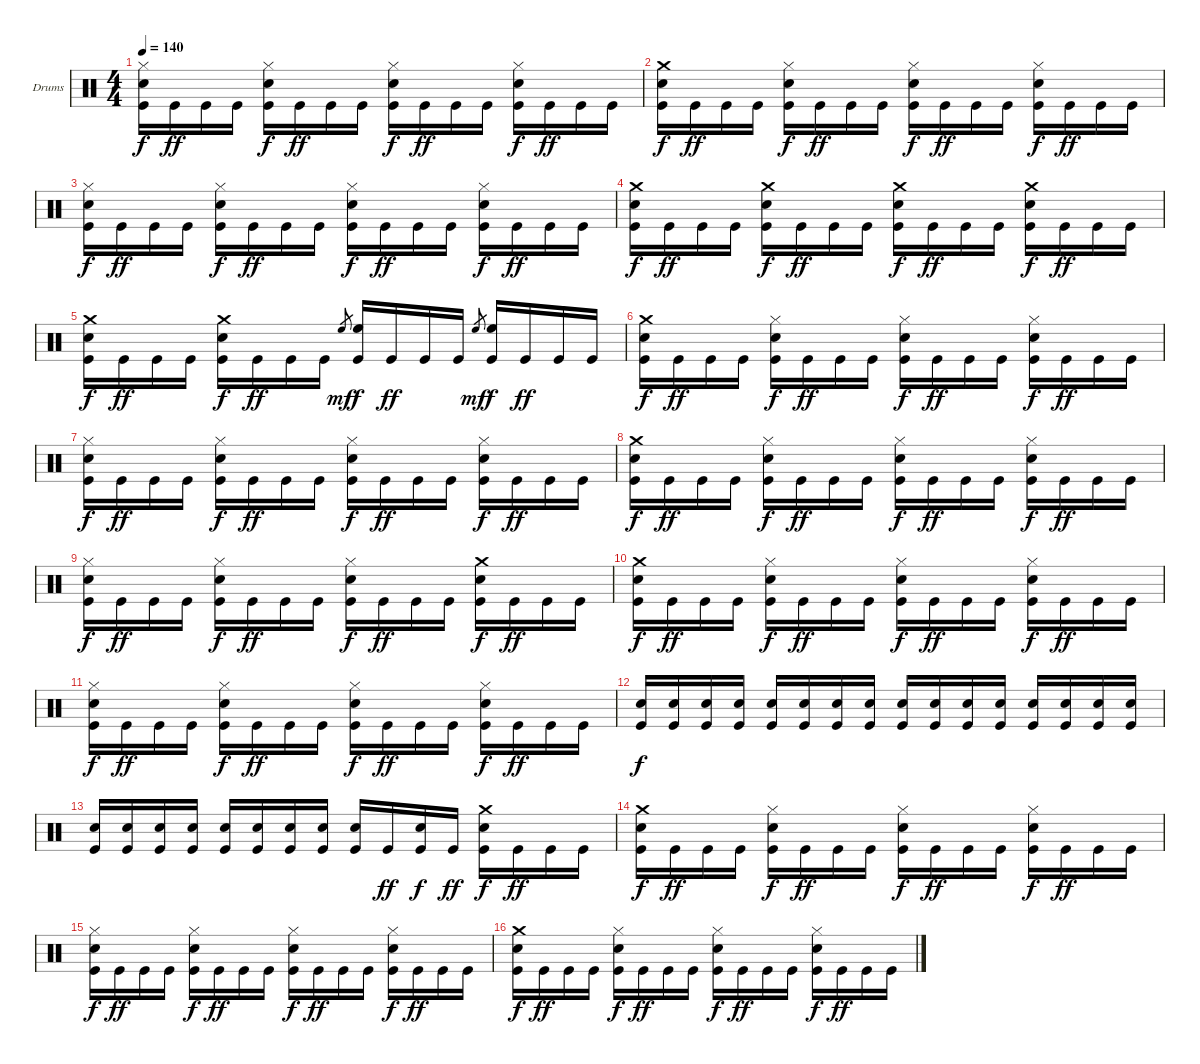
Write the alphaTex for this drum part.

\defaultSystemsLayout 4
\bracketExtendMode groupsimilarinstruments
\firstSystemTrackNameOrientation horizontal
\otherSystemsTrackNameOrientation horizontal
\track ("Drumkit" "Drums") {instrument percussion}
\staff {score}
\articulation defaults
\ts (4 4)
\tempo 140
\clef neutral
\ks c
("Hi-Hat (closed)" "Snare (hit) 2" "Kick (hit)").16{dy f} "Kick (hit)".16{dy ff} "Kick (hit)".16 "Kick (hit)".16 ("Hi-Hat (closed)" "Snare (hit) 2" "Kick (hit)").16{dy f} "Kick (hit)".16{dy ff} "Kick (hit)".16 "Kick (hit)".16 ("Hi-Hat (closed)" "Snare (hit) 2" "Kick (hit)").16{dy f} "Kick (hit)".16{dy ff} "Kick (hit)".16 "Kick (hit)".16 ("Hi-Hat (closed)" "Snare (hit) 2" "Kick (hit)").16{dy f} "Kick (hit)".16{dy ff} "Kick (hit)".16 "Kick (hit)".16 |
("Crash medium (hit)" "Snare (hit) 2" "Kick (hit)").16{dy f} "Kick (hit)".16{dy ff} "Kick (hit)".16 "Kick (hit)".16 ("Hi-Hat (closed)" "Snare (hit) 2" "Kick (hit)").16{dy f} "Kick (hit)".16{dy ff} "Kick (hit)".16 "Kick (hit)".16 ("Hi-Hat (closed)" "Snare (hit) 2" "Kick (hit)").16{dy f} "Kick (hit)".16{dy ff} "Kick (hit)".16 "Kick (hit)".16 ("Hi-Hat (closed)" "Snare (hit) 2" "Kick (hit)").16{dy f} "Kick (hit)".16{dy ff} "Kick (hit)".16 "Kick (hit)".16 |
("Hi-Hat (closed)" "Snare (hit) 2" "Kick (hit)").16{dy f} "Kick (hit)".16{dy ff} "Kick (hit)".16 "Kick (hit)".16 ("Hi-Hat (closed)" "Snare (hit) 2" "Kick (hit)").16{dy f} "Kick (hit)".16{dy ff} "Kick (hit)".16 "Kick (hit)".16 ("Hi-Hat (closed)" "Snare (hit) 2" "Kick (hit)").16{dy f} "Kick (hit)".16{dy ff} "Kick (hit)".16 "Kick (hit)".16 ("Hi-Hat (closed)" "Snare (hit) 2" "Kick (hit)").16{dy f} "Kick (hit)".16{dy ff} "Kick (hit)".16 "Kick (hit)".16 |
("Crash medium (hit)" "Snare (hit) 2" "Kick (hit)").16{dy f} "Kick (hit)".16{dy ff} "Kick (hit)".16 "Kick (hit)".16 ("Crash medium (hit)" "Snare (hit) 2" "Kick (hit)").16{dy f} "Kick (hit)".16{dy ff} "Kick (hit)".16 "Kick (hit)".16 ("Crash medium (hit)" "Snare (hit) 2" "Kick (hit)").16{dy f} "Kick (hit)".16{dy ff} "Kick (hit)".16 "Kick (hit)".16 ("Crash medium (hit)" "Snare (hit) 2" "Kick (hit)").16{dy f} "Kick (hit)".16{dy ff} "Kick (hit)".16 "Kick (hit)".16 |
("Crash medium (hit)" "Snare (hit) 2" "Kick (hit)").16{dy f} "Kick (hit)".16{dy ff} "Kick (hit)".16 "Kick (hit)".16 ("Crash medium (hit)" "Snare (hit) 2" "Kick (hit)").16{dy f} "Kick (hit)".16{dy ff} "Kick (hit)".16 "Kick (hit)".16 "High Floor Tom (hit)".8{gr dy mf} ("High Floor Tom (hit)" "Kick (hit)").16{dy f} "Kick (hit)".16{dy ff} "Kick (hit)".16 "Kick (hit)".16 "High Floor Tom (hit)".8{gr dy mf} ("High Floor Tom (hit)" "Kick (hit)").16{dy f} "Kick (hit)".16{dy ff} "Kick (hit)".16 "Kick (hit)".16 |
("Crash medium (hit)" "Snare (hit) 2" "Kick (hit)").16{dy f} "Kick (hit)".16{dy ff} "Kick (hit)".16 "Kick (hit)".16 ("Hi-Hat (closed)" "Snare (hit) 2" "Kick (hit)").16{dy f} "Kick (hit)".16{dy ff} "Kick (hit)".16 "Kick (hit)".16 ("Hi-Hat (closed)" "Snare (hit) 2" "Kick (hit)").16{dy f} "Kick (hit)".16{dy ff} "Kick (hit)".16 "Kick (hit)".16 ("Hi-Hat (closed)" "Snare (hit) 2" "Kick (hit)").16{dy f} "Kick (hit)".16{dy ff} "Kick (hit)".16 "Kick (hit)".16 |
("Hi-Hat (closed)" "Snare (hit) 2" "Kick (hit)").16{dy f} "Kick (hit)".16{dy ff} "Kick (hit)".16 "Kick (hit)".16 ("Hi-Hat (closed)" "Snare (hit) 2" "Kick (hit)").16{dy f} "Kick (hit)".16{dy ff} "Kick (hit)".16 "Kick (hit)".16 ("Hi-Hat (closed)" "Snare (hit) 2" "Kick (hit)").16{dy f} "Kick (hit)".16{dy ff} "Kick (hit)".16 "Kick (hit)".16 ("Hi-Hat (closed)" "Snare (hit) 2" "Kick (hit)").16{dy f} "Kick (hit)".16{dy ff} "Kick (hit)".16 "Kick (hit)".16 |
("Crash medium (hit)" "Snare (hit) 2" "Kick (hit)").16{dy f} "Kick (hit)".16{dy ff} "Kick (hit)".16 "Kick (hit)".16 ("Hi-Hat (closed)" "Snare (hit) 2" "Kick (hit)").16{dy f} "Kick (hit)".16{dy ff} "Kick (hit)".16 "Kick (hit)".16 ("Hi-Hat (closed)" "Snare (hit) 2" "Kick (hit)").16{dy f} "Kick (hit)".16{dy ff} "Kick (hit)".16 "Kick (hit)".16 ("Hi-Hat (closed)" "Snare (hit) 2" "Kick (hit)").16{dy f} "Kick (hit)".16{dy ff} "Kick (hit)".16 "Kick (hit)".16 |
("Hi-Hat (closed)" "Snare (hit) 2" "Kick (hit)").16{dy f} "Kick (hit)".16{dy ff} "Kick (hit)".16 "Kick (hit)".16 ("Hi-Hat (closed)" "Snare (hit) 2" "Kick (hit)").16{dy f} "Kick (hit)".16{dy ff} "Kick (hit)".16 "Kick (hit)".16 ("Hi-Hat (closed)" "Snare (hit) 2" "Kick (hit)").16{dy f} "Kick (hit)".16{dy ff} "Kick (hit)".16 "Kick (hit)".16 ("Crash medium (hit)" "Snare (hit) 2" "Kick (hit)").16{dy f} "Kick (hit)".16{dy ff} "Kick (hit)".16 "Kick (hit)".16 |
("Crash medium (hit)" "Snare (hit) 2" "Kick (hit)").16{dy f} "Kick (hit)".16{dy ff} "Kick (hit)".16 "Kick (hit)".16 ("Hi-Hat (closed)" "Snare (hit) 2" "Kick (hit)").16{dy f} "Kick (hit)".16{dy ff} "Kick (hit)".16 "Kick (hit)".16 ("Hi-Hat (closed)" "Snare (hit) 2" "Kick (hit)").16{dy f} "Kick (hit)".16{dy ff} "Kick (hit)".16 "Kick (hit)".16 ("Hi-Hat (closed)" "Snare (hit) 2" "Kick (hit)").16{dy f} "Kick (hit)".16{dy ff} "Kick (hit)".16 "Kick (hit)".16 |
("Hi-Hat (closed)" "Snare (hit) 2" "Kick (hit)").16{dy f} "Kick (hit)".16{dy ff} "Kick (hit)".16 "Kick (hit)".16 ("Hi-Hat (closed)" "Snare (hit) 2" "Kick (hit)").16{dy f} "Kick (hit)".16{dy ff} "Kick (hit)".16 "Kick (hit)".16 ("Hi-Hat (closed)" "Snare (hit) 2" "Kick (hit)").16{dy f} "Kick (hit)".16{dy ff} "Kick (hit)".16 "Kick (hit)".16 ("Hi-Hat (closed)" "Snare (hit) 2" "Kick (hit)").16{dy f} "Kick (hit)".16{dy ff} "Kick (hit)".16 "Kick (hit)".16 |
("Snare (hit) 2" "Kick (hit)").16{dy f} ("Snare (hit) 2" "Kick (hit)").16 ("Snare (hit) 2" "Kick (hit)").16 ("Snare (hit) 2" "Kick (hit)").16 ("Snare (hit) 2" "Kick (hit)").16 ("Snare (hit) 2" "Kick (hit)").16 ("Snare (hit) 2" "Kick (hit)").16 ("Snare (hit) 2" "Kick (hit)").16 ("Snare (hit) 2" "Kick (hit)").16 ("Snare (hit) 2" "Kick (hit)").16 ("Snare (hit) 2" "Kick (hit)").16 ("Snare (hit) 2" "Kick (hit)").16 ("Snare (hit) 2" "Kick (hit)").16 ("Snare (hit) 2" "Kick (hit)").16 ("Snare (hit) 2" "Kick (hit)").16 ("Snare (hit) 2" "Kick (hit)").16 |
("Snare (hit) 2" "Kick (hit)").16 ("Snare (hit) 2" "Kick (hit)").16 ("Snare (hit) 2" "Kick (hit)").16 ("Snare (hit) 2" "Kick (hit)").16 ("Snare (hit) 2" "Kick (hit)").16 ("Snare (hit) 2" "Kick (hit)").16 ("Snare (hit) 2" "Kick (hit)").16 ("Snare (hit) 2" "Kick (hit)").16 ("Snare (hit) 2" "Kick (hit)").16 "Kick (hit)".16{dy ff} ("Snare (hit) 2" "Kick (hit)").16{dy f} "Kick (hit)".16{dy ff} ("Crash medium (hit)" "Snare (hit) 2" "Kick (hit)").16{dy f} "Kick (hit)".16{dy ff} "Kick (hit)".16 "Kick (hit)".16 |
("Crash medium (hit)" "Snare (hit) 2" "Kick (hit)").16{dy f} "Kick (hit)".16{dy ff} "Kick (hit)".16 "Kick (hit)".16 ("Hi-Hat (closed)" "Snare (hit) 2" "Kick (hit)").16{dy f} "Kick (hit)".16{dy ff} "Kick (hit)".16 "Kick (hit)".16 ("Hi-Hat (closed)" "Snare (hit) 2" "Kick (hit)").16{dy f} "Kick (hit)".16{dy ff} "Kick (hit)".16 "Kick (hit)".16 ("Hi-Hat (closed)" "Snare (hit) 2" "Kick (hit)").16{dy f} "Kick (hit)".16{dy ff} "Kick (hit)".16 "Kick (hit)".16 |
("Hi-Hat (closed)" "Snare (hit) 2" "Kick (hit)").16{dy f} "Kick (hit)".16{dy ff} "Kick (hit)".16 "Kick (hit)".16 ("Hi-Hat (closed)" "Snare (hit) 2" "Kick (hit)").16{dy f} "Kick (hit)".16{dy ff} "Kick (hit)".16 "Kick (hit)".16 ("Hi-Hat (closed)" "Snare (hit) 2" "Kick (hit)").16{dy f} "Kick (hit)".16{dy ff} "Kick (hit)".16 "Kick (hit)".16 ("Hi-Hat (closed)" "Snare (hit) 2" "Kick (hit)").16{dy f} "Kick (hit)".16{dy ff} "Kick (hit)".16 "Kick (hit)".16 |
("Crash medium (hit)" "Snare (hit) 2" "Kick (hit)").16{dy f} "Kick (hit)".16{dy ff} "Kick (hit)".16 "Kick (hit)".16 ("Hi-Hat (closed)" "Snare (hit) 2" "Kick (hit)").16{dy f} "Kick (hit)".16{dy ff} "Kick (hit)".16 "Kick (hit)".16 ("Hi-Hat (closed)" "Snare (hit) 2" "Kick (hit)").16{dy f} "Kick (hit)".16{dy ff} "Kick (hit)".16 "Kick (hit)".16 ("Hi-Hat (closed)" "Snare (hit) 2" "Kick (hit)").16{dy f} "Kick (hit)".16{dy ff} "Kick (hit)".16 "Kick (hit)".16
